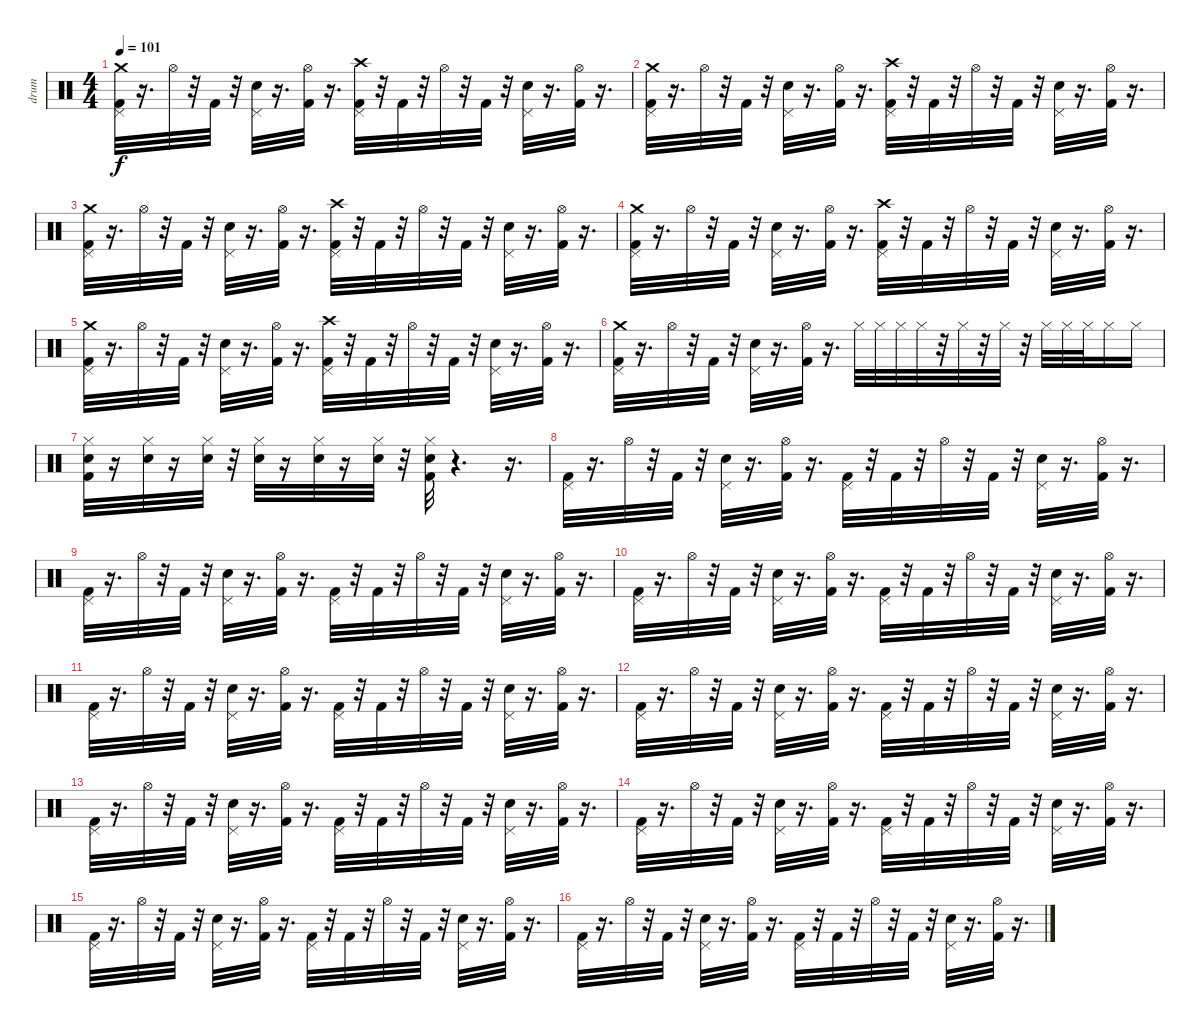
\track ("drum" "drum") {instrument percussion}
\staff {score}
\articulation defaults
\ts (4 4)
\tempo 101
\clef neutral
\ks c
("Kick (hit) 2" "Pedal Hi-Hat (hit)" "Crash medium (hit)").32{dy f} r.16{d} "Hi-Hat (open)".32 r.32 "Kick (hit) 2".32 r.32 ("Electric Snare (hit)" "Pedal Hi-Hat (hit)").32 r.16{d} ("Kick (hit) 2" "Hi-Hat (open)").32 r.16{d} ("Kick (hit) 2" "Pedal Hi-Hat (hit)" "Crash high (hit)").32 r.32 "Kick (hit) 2".32 r.32 "Hi-Hat (open)".32 r.32 "Kick (hit) 2".32 r.32 ("Electric Snare (hit)" "Pedal Hi-Hat (hit)").32 r.16{d} ("Kick (hit) 2" "Hi-Hat (open)").32 r.16{d} |
("Kick (hit) 2" "Pedal Hi-Hat (hit)" "Crash medium (hit)").32 r.16{d} "Hi-Hat (open)".32 r.32 "Kick (hit) 2".32 r.32 ("Electric Snare (hit)" "Pedal Hi-Hat (hit)").32 r.16{d} ("Kick (hit) 2" "Hi-Hat (open)").32 r.16{d} ("Kick (hit) 2" "Pedal Hi-Hat (hit)" "Crash high (hit)").32 r.32 "Kick (hit) 2".32 r.32 "Hi-Hat (open)".32 r.32 "Kick (hit) 2".32 r.32 ("Electric Snare (hit)" "Pedal Hi-Hat (hit)").32 r.16{d} ("Kick (hit) 2" "Hi-Hat (open)").32 r.16{d} |
("Kick (hit) 2" "Pedal Hi-Hat (hit)" "Crash medium (hit)").32 r.16{d} "Hi-Hat (open)".32 r.32 "Kick (hit) 2".32 r.32 ("Electric Snare (hit)" "Pedal Hi-Hat (hit)").32 r.16{d} ("Kick (hit) 2" "Hi-Hat (open)").32 r.16{d} ("Kick (hit) 2" "Pedal Hi-Hat (hit)" "Crash high (hit)").32 r.32 "Kick (hit) 2".32 r.32 "Hi-Hat (open)".32 r.32 "Kick (hit) 2".32 r.32 ("Electric Snare (hit)" "Pedal Hi-Hat (hit)").32 r.16{d} ("Kick (hit) 2" "Hi-Hat (open)").32 r.16{d} |
("Kick (hit) 2" "Pedal Hi-Hat (hit)" "Crash medium (hit)").32 r.16{d} "Hi-Hat (open)".32 r.32 "Kick (hit) 2".32 r.32 ("Electric Snare (hit)" "Pedal Hi-Hat (hit)").32 r.16{d} ("Kick (hit) 2" "Hi-Hat (open)").32 r.16{d} ("Kick (hit) 2" "Pedal Hi-Hat (hit)" "Crash high (hit)").32 r.32 "Kick (hit) 2".32 r.32 "Hi-Hat (open)".32 r.32 "Kick (hit) 2".32 r.32 ("Electric Snare (hit)" "Pedal Hi-Hat (hit)").32 r.16{d} ("Kick (hit) 2" "Hi-Hat (open)").32 r.16{d} |
("Kick (hit) 2" "Pedal Hi-Hat (hit)" "Crash medium (hit)").32 r.16{d} "Hi-Hat (open)".32 r.32 "Kick (hit) 2".32 r.32 ("Electric Snare (hit)" "Pedal Hi-Hat (hit)").32 r.16{d} ("Kick (hit) 2" "Hi-Hat (open)").32 r.16{d} ("Kick (hit) 2" "Pedal Hi-Hat (hit)" "Crash high (hit)").32 r.32 "Kick (hit) 2".32 r.32 "Hi-Hat (open)".32 r.32 "Kick (hit) 2".32 r.32 ("Electric Snare (hit)" "Pedal Hi-Hat (hit)").32 r.16{d} ("Kick (hit) 2" "Hi-Hat (open)").32 r.16{d} |
("Kick (hit) 2" "Pedal Hi-Hat (hit)" "Crash medium (hit)").32 r.16{d} "Hi-Hat (open)".32 r.32 "Kick (hit) 2".32 r.32 ("Electric Snare (hit)" "Pedal Hi-Hat (hit)").32 r.16{d} ("Kick (hit) 2" "Hi-Hat (open)").32 r.16{d} "Hi-Hat (closed)".32 "Hi-Hat (closed)".32 "Hi-Hat (closed)".32 "Hi-Hat (closed)".32 r.32 "Hi-Hat (closed)".32 r.32 "Hi-Hat (closed)".32 r.32 "Hi-Hat (closed)".32 "Hi-Hat (closed)".32 "Hi-Hat (closed)".32 "Hi-Hat (closed)".16 "Hi-Hat (closed)".16 |
("Kick (hit) 2" "Electric Snare (hit)" "Hi-Hat (closed)").32 r.16 ("Electric Snare (hit)" "Hi-Hat (closed)").32 r.16 ("Electric Snare (hit)" "Hi-Hat (closed)").32 r.32 ("Electric Snare (hit)" "Hi-Hat (closed)").32 r.16 ("Electric Snare (hit)" "Hi-Hat (closed)").32 r.16 ("Electric Snare (hit)" "Hi-Hat (closed)").32 r.32 ("Electric Snare (hit)" "Kick (hit) 2" "Hi-Hat (closed)").32 r.4{d} r.16{d} |
("Kick (hit) 2" "Pedal Hi-Hat (hit)").32 r.16{d} "Hi-Hat (open)".32 r.32 "Kick (hit) 2".32 r.32 ("Electric Snare (hit)" "Pedal Hi-Hat (hit)").32 r.16{d} ("Kick (hit) 2" "Hi-Hat (open)").32 r.16{d} ("Kick (hit) 2" "Pedal Hi-Hat (hit)").32 r.32 "Kick (hit) 2".32 r.32 "Hi-Hat (open)".32 r.32 "Kick (hit) 2".32 r.32 ("Electric Snare (hit)" "Pedal Hi-Hat (hit)").32 r.16{d} ("Kick (hit) 2" "Hi-Hat (open)").32 r.16{d} |
("Kick (hit) 2" "Pedal Hi-Hat (hit)").32 r.16{d} "Hi-Hat (open)".32 r.32 "Kick (hit) 2".32 r.32 ("Electric Snare (hit)" "Pedal Hi-Hat (hit)").32 r.16{d} ("Kick (hit) 2" "Hi-Hat (open)").32 r.16{d} ("Kick (hit) 2" "Pedal Hi-Hat (hit)").32 r.32 "Kick (hit) 2".32 r.32 "Hi-Hat (open)".32 r.32 "Kick (hit) 2".32 r.32 ("Electric Snare (hit)" "Pedal Hi-Hat (hit)").32 r.16{d} ("Kick (hit) 2" "Hi-Hat (open)").32 r.16{d} |
("Kick (hit) 2" "Pedal Hi-Hat (hit)").32 r.16{d} "Hi-Hat (open)".32 r.32 "Kick (hit) 2".32 r.32 ("Electric Snare (hit)" "Pedal Hi-Hat (hit)").32 r.16{d} ("Kick (hit) 2" "Hi-Hat (open)").32 r.16{d} ("Kick (hit) 2" "Pedal Hi-Hat (hit)").32 r.32 "Kick (hit) 2".32 r.32 "Hi-Hat (open)".32 r.32 "Kick (hit) 2".32 r.32 ("Electric Snare (hit)" "Pedal Hi-Hat (hit)").32 r.16{d} ("Kick (hit) 2" "Hi-Hat (open)").32 r.16{d} |
("Kick (hit) 2" "Pedal Hi-Hat (hit)").32 r.16{d} "Hi-Hat (open)".32 r.32 "Kick (hit) 2".32 r.32 ("Electric Snare (hit)" "Pedal Hi-Hat (hit)").32 r.16{d} ("Kick (hit) 2" "Hi-Hat (open)").32 r.16{d} ("Kick (hit) 2" "Pedal Hi-Hat (hit)").32 r.32 "Kick (hit) 2".32 r.32 "Hi-Hat (open)".32 r.32 "Kick (hit) 2".32 r.32 ("Electric Snare (hit)" "Pedal Hi-Hat (hit)").32 r.16{d} ("Kick (hit) 2" "Hi-Hat (open)").32 r.16{d} |
("Kick (hit) 2" "Pedal Hi-Hat (hit)").32 r.16{d} "Hi-Hat (open)".32 r.32 "Kick (hit) 2".32 r.32 ("Electric Snare (hit)" "Pedal Hi-Hat (hit)").32 r.16{d} ("Kick (hit) 2" "Hi-Hat (open)").32 r.16{d} ("Kick (hit) 2" "Pedal Hi-Hat (hit)").32 r.32 "Kick (hit) 2".32 r.32 "Hi-Hat (open)".32 r.32 "Kick (hit) 2".32 r.32 ("Electric Snare (hit)" "Pedal Hi-Hat (hit)").32 r.16{d} ("Kick (hit) 2" "Hi-Hat (open)").32 r.16{d} |
("Kick (hit) 2" "Pedal Hi-Hat (hit)").32 r.16{d} "Hi-Hat (open)".32 r.32 "Kick (hit) 2".32 r.32 ("Electric Snare (hit)" "Pedal Hi-Hat (hit)").32 r.16{d} ("Kick (hit) 2" "Hi-Hat (open)").32 r.16{d} ("Kick (hit) 2" "Pedal Hi-Hat (hit)").32 r.32 "Kick (hit) 2".32 r.32 "Hi-Hat (open)".32 r.32 "Kick (hit) 2".32 r.32 ("Electric Snare (hit)" "Pedal Hi-Hat (hit)").32 r.16{d} ("Kick (hit) 2" "Hi-Hat (open)").32 r.16{d} |
("Kick (hit) 2" "Pedal Hi-Hat (hit)").32 r.16{d} "Hi-Hat (open)".32 r.32 "Kick (hit) 2".32 r.32 ("Electric Snare (hit)" "Pedal Hi-Hat (hit)").32 r.16{d} ("Kick (hit) 2" "Hi-Hat (open)").32 r.16{d} ("Kick (hit) 2" "Pedal Hi-Hat (hit)").32 r.32 "Kick (hit) 2".32 r.32 "Hi-Hat (open)".32 r.32 "Kick (hit) 2".32 r.32 ("Electric Snare (hit)" "Pedal Hi-Hat (hit)").32 r.16{d} ("Kick (hit) 2" "Hi-Hat (open)").32 r.16{d} |
("Kick (hit) 2" "Pedal Hi-Hat (hit)").32 r.16{d} "Hi-Hat (open)".32 r.32 "Kick (hit) 2".32 r.32 ("Electric Snare (hit)" "Pedal Hi-Hat (hit)").32 r.16{d} ("Kick (hit) 2" "Hi-Hat (open)").32 r.16{d} ("Kick (hit) 2" "Pedal Hi-Hat (hit)").32 r.32 "Kick (hit) 2".32 r.32 "Hi-Hat (open)".32 r.32 "Kick (hit) 2".32 r.32 ("Electric Snare (hit)" "Pedal Hi-Hat (hit)").32 r.16{d} ("Kick (hit) 2" "Hi-Hat (open)").32 r.16{d} |
("Kick (hit) 2" "Pedal Hi-Hat (hit)").32 r.16{d} "Hi-Hat (open)".32 r.32 "Kick (hit) 2".32 r.32 ("Electric Snare (hit)" "Pedal Hi-Hat (hit)").32 r.16{d} ("Kick (hit) 2" "Hi-Hat (open)").32 r.16{d} ("Kick (hit) 2" "Pedal Hi-Hat (hit)").32 r.32 "Kick (hit) 2".32 r.32 "Hi-Hat (open)".32 r.32 "Kick (hit) 2".32 r.32 ("Electric Snare (hit)" "Pedal Hi-Hat (hit)").32 r.16{d} ("Kick (hit) 2" "Hi-Hat (open)").32 r.16{d}
